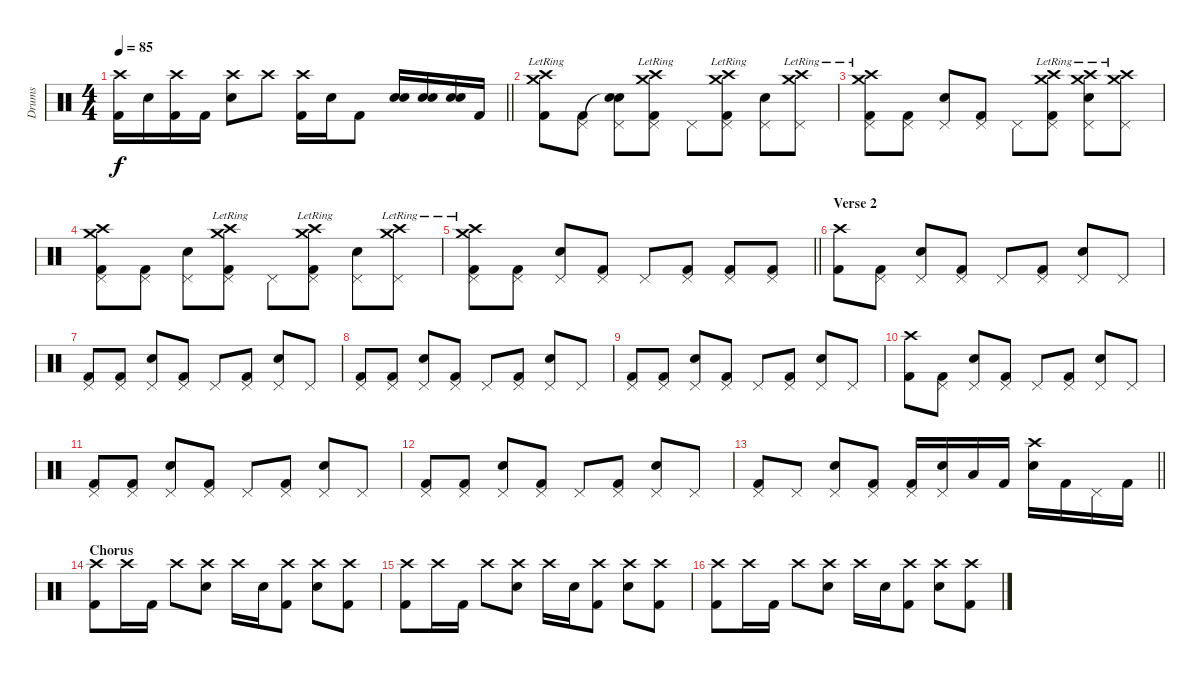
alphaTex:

\track ("Drums" "Drums") {instrument percussion}
\staff {score}
\articulation defaults
\ts (4 4)
\tempo 85
\clef neutral
\barLineRight lightlight
\ks c
("Crash high (hit)" "Kick (hit) 2").16{dy f} "Electric Snare (hit)".16 ("Crash high (hit)" "Kick (hit) 2").16 "Kick (hit) 2".16 ("Crash high (hit)" "Electric Snare (hit)").8 "Crash high (hit)".8 ("Crash high (hit)" "Kick (hit) 2").16 "Electric Snare (hit)".16 "Kick (hit) 2".8 ("Electric Snare (hit)" "Electric Snare (hit)").16 ("Electric Snare (hit)" "Electric Snare (hit)").16 ("Electric Snare (hit)" "Electric Snare (hit)").16 "Kick (hit) 2".16 |
("Crash high (hit)"{lr} "Crash medium (hit)" "Kick (hit) 2").8 ("Pedal Hi-Hat (hit)" "Kick (hit) 2").8 ("Snare (hit)"{t} "Pedal Hi-Hat (hit)" "Electric Snare (hit)").8 ("Crash high (hit)"{lr} "Pedal Hi-Hat (hit)" "Crash medium (hit)" "Kick (hit) 2").8 "Pedal Hi-Hat (hit)".8 ("Crash high (hit)"{lr} "Pedal Hi-Hat (hit)" "Crash medium (hit)" "Kick (hit) 2").8 ("Pedal Hi-Hat (hit)" "Electric Snare (hit)").8 ("Crash high (hit)"{lr} "Pedal Hi-Hat (hit)" "Crash medium (hit)").8 |
("Crash high (hit)"{lr} "Pedal Hi-Hat (hit)" "Crash medium (hit)" "Kick (hit) 2").8 ("Pedal Hi-Hat (hit)" "Kick (hit) 2").8 ("Pedal Hi-Hat (hit)" "Electric Snare (hit)").8 ("Pedal Hi-Hat (hit)" "Kick (hit) 2").8 "Pedal Hi-Hat (hit)".8 ("Crash high (hit)"{lr} "Pedal Hi-Hat (hit)" "Crash medium (hit)" "Kick (hit) 2").8 ("Crash high (hit)"{lr} "Pedal Hi-Hat (hit)" "Crash medium (hit)" "Electric Snare (hit)").8 ("Crash high (hit)"{lr} "Pedal Hi-Hat (hit)" "Crash medium (hit)").8 |
("Crash high (hit)" "Pedal Hi-Hat (hit)" "Crash medium (hit)" "Kick (hit) 2").8 ("Pedal Hi-Hat (hit)" "Kick (hit) 2").8 ("Pedal Hi-Hat (hit)" "Electric Snare (hit)").8 ("Crash high (hit)"{lr} "Pedal Hi-Hat (hit)" "Crash medium (hit)" "Kick (hit) 2").8 "Pedal Hi-Hat (hit)".8 ("Crash high (hit)"{lr} "Pedal Hi-Hat (hit)" "Crash medium (hit)" "Kick (hit) 2").8 ("Pedal Hi-Hat (hit)" "Electric Snare (hit)").8 ("Crash high (hit)"{lr} "Pedal Hi-Hat (hit)" "Crash medium (hit)").8 |
\barLineRight lightlight
("Crash high (hit)"{lr} "Pedal Hi-Hat (hit)" "Crash medium (hit)" "Kick (hit) 2").8 ("Pedal Hi-Hat (hit)" "Kick (hit) 2").8 ("Pedal Hi-Hat (hit)" "Electric Snare (hit)").8 ("Pedal Hi-Hat (hit)" "Kick (hit) 2").8 "Pedal Hi-Hat (hit)".8 ("Pedal Hi-Hat (hit)" "Kick (hit) 2").8 ("Pedal Hi-Hat (hit)" "Kick (hit) 2").8 ("Pedal Hi-Hat (hit)" "Kick (hit) 2").8 |
\section ("" "Verse 2")
("Crash high (hit)" "Kick (hit) 2").8 ("Pedal Hi-Hat (hit)" "Kick (hit) 2").8 ("Pedal Hi-Hat (hit)" "Electric Snare (hit)").8 ("Pedal Hi-Hat (hit)" "Kick (hit) 2").8 "Pedal Hi-Hat (hit)".8 ("Pedal Hi-Hat (hit)" "Kick (hit) 2").8 ("Pedal Hi-Hat (hit)" "Electric Snare (hit)").8 "Pedal Hi-Hat (hit)".8 |
("Pedal Hi-Hat (hit)" "Kick (hit) 2").8 ("Pedal Hi-Hat (hit)" "Kick (hit) 2").8 ("Pedal Hi-Hat (hit)" "Electric Snare (hit)").8 ("Pedal Hi-Hat (hit)" "Kick (hit) 2").8 "Pedal Hi-Hat (hit)".8 ("Pedal Hi-Hat (hit)" "Kick (hit) 2").8 ("Pedal Hi-Hat (hit)" "Electric Snare (hit)").8 "Pedal Hi-Hat (hit)".8 |
("Pedal Hi-Hat (hit)" "Kick (hit) 2").8 ("Pedal Hi-Hat (hit)" "Kick (hit) 2").8 ("Pedal Hi-Hat (hit)" "Electric Snare (hit)").8 ("Pedal Hi-Hat (hit)" "Kick (hit) 2").8 "Pedal Hi-Hat (hit)".8 ("Pedal Hi-Hat (hit)" "Kick (hit) 2").8 ("Pedal Hi-Hat (hit)" "Electric Snare (hit)").8 "Pedal Hi-Hat (hit)".8 |
("Pedal Hi-Hat (hit)" "Kick (hit) 2").8 ("Pedal Hi-Hat (hit)" "Kick (hit) 2").8 ("Pedal Hi-Hat (hit)" "Electric Snare (hit)").8 ("Pedal Hi-Hat (hit)" "Kick (hit) 2").8 "Pedal Hi-Hat (hit)".8 ("Pedal Hi-Hat (hit)" "Kick (hit) 2").8 ("Pedal Hi-Hat (hit)" "Electric Snare (hit)").8 "Pedal Hi-Hat (hit)".8 |
("Crash high (hit)" "Kick (hit) 2").8 ("Pedal Hi-Hat (hit)" "Kick (hit) 2").8 ("Pedal Hi-Hat (hit)" "Electric Snare (hit)").8 ("Pedal Hi-Hat (hit)" "Kick (hit) 2").8 "Pedal Hi-Hat (hit)".8 ("Pedal Hi-Hat (hit)" "Kick (hit) 2").8 ("Pedal Hi-Hat (hit)" "Electric Snare (hit)").8 "Pedal Hi-Hat (hit)".8 |
("Pedal Hi-Hat (hit)" "Kick (hit) 2").8 ("Pedal Hi-Hat (hit)" "Kick (hit) 2").8 ("Pedal Hi-Hat (hit)" "Electric Snare (hit)").8 ("Pedal Hi-Hat (hit)" "Kick (hit) 2").8 "Pedal Hi-Hat (hit)".8 ("Pedal Hi-Hat (hit)" "Kick (hit) 2").8 ("Pedal Hi-Hat (hit)" "Electric Snare (hit)").8 "Pedal Hi-Hat (hit)".8 |
("Pedal Hi-Hat (hit)" "Kick (hit) 2").8 ("Pedal Hi-Hat (hit)" "Kick (hit) 2").8 ("Pedal Hi-Hat (hit)" "Electric Snare (hit)").8 ("Pedal Hi-Hat (hit)" "Kick (hit) 2").8 "Pedal Hi-Hat (hit)".8 ("Pedal Hi-Hat (hit)" "Kick (hit) 2").8 ("Pedal Hi-Hat (hit)" "Electric Snare (hit)").8 "Pedal Hi-Hat (hit)".8 |
\barLineRight lightlight
("Pedal Hi-Hat (hit)" "Kick (hit) 2").8 "Pedal Hi-Hat (hit)".8 ("Pedal Hi-Hat (hit)" "Electric Snare (hit)").8 ("Pedal Hi-Hat (hit)" "Kick (hit) 2").8 ("Pedal Hi-Hat (hit)" "Kick (hit) 2").16 ("Pedal Hi-Hat (hit)" "Electric Snare (hit)").16 "Low Tom (hit)".16 "Kick (hit) 2".16 ("Crash high (hit)" "Electric Snare (hit)").16 "Kick (hit) 2".16 "Pedal Hi-Hat (hit)".16 "Kick (hit) 2".16 |
\section ("" "Chorus")
("Crash high (hit)" "Kick (hit) 2").8 "Crash high (hit)".16 "Kick (hit) 2".16 "Crash high (hit)".8 ("Crash high (hit)" "Electric Snare (hit)").8 "Crash high (hit)".16 "Electric Snare (hit)".16 ("Crash high (hit)" "Kick (hit) 2").8 ("Crash high (hit)" "Electric Snare (hit)").8 ("Crash high (hit)" "Kick (hit) 2").8 |
("Crash high (hit)" "Kick (hit) 2").8 "Crash high (hit)".16 "Kick (hit) 2".16 "Crash high (hit)".8 ("Crash high (hit)" "Electric Snare (hit)").8 "Crash high (hit)".16 "Electric Snare (hit)".16 ("Crash high (hit)" "Kick (hit) 2").8 ("Crash high (hit)" "Electric Snare (hit)").8 ("Crash high (hit)" "Kick (hit) 2").8 |
("Crash high (hit)" "Kick (hit) 2").8 "Crash high (hit)".16 "Kick (hit) 2".16 "Crash high (hit)".8 ("Crash high (hit)" "Electric Snare (hit)").8 "Crash high (hit)".16 "Electric Snare (hit)".16 ("Crash high (hit)" "Kick (hit) 2").8 ("Crash high (hit)" "Electric Snare (hit)").8 ("Crash high (hit)" "Kick (hit) 2").8
